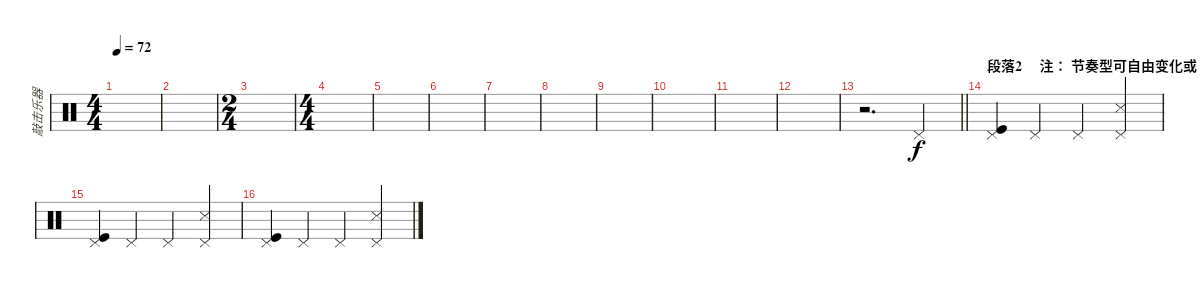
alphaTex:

\track ("敲击乐器" "敲击乐器") {instrument percussion}
\staff {score}
\articulation defaults
\ts (4 4)
\tempo 72
\clef neutral
\ks c
|
|
\ts (2 4)
|
\ts (4 4)
|
|
|
|
|
|
|
|
|
\barLineRight lightlight
r.2{d} "Pedal Hi-Hat (hit)".4 |
\section ("" "段落2     注： 节奏型可自由变化或 跟段落1相同")
("Pedal Hi-Hat (hit)" "Kick (hit)").4 "Pedal Hi-Hat (hit)".4 "Pedal Hi-Hat (hit)".4 ("Pedal Hi-Hat (hit)" "Snare (side stick) 3").4 |
("Pedal Hi-Hat (hit)" "Kick (hit)").4 "Pedal Hi-Hat (hit)".4 "Pedal Hi-Hat (hit)".4 ("Pedal Hi-Hat (hit)" "Snare (side stick) 3").4 |
("Pedal Hi-Hat (hit)" "Kick (hit)").4 "Pedal Hi-Hat (hit)".4 "Pedal Hi-Hat (hit)".4 ("Pedal Hi-Hat (hit)" "Snare (side stick) 3").4
